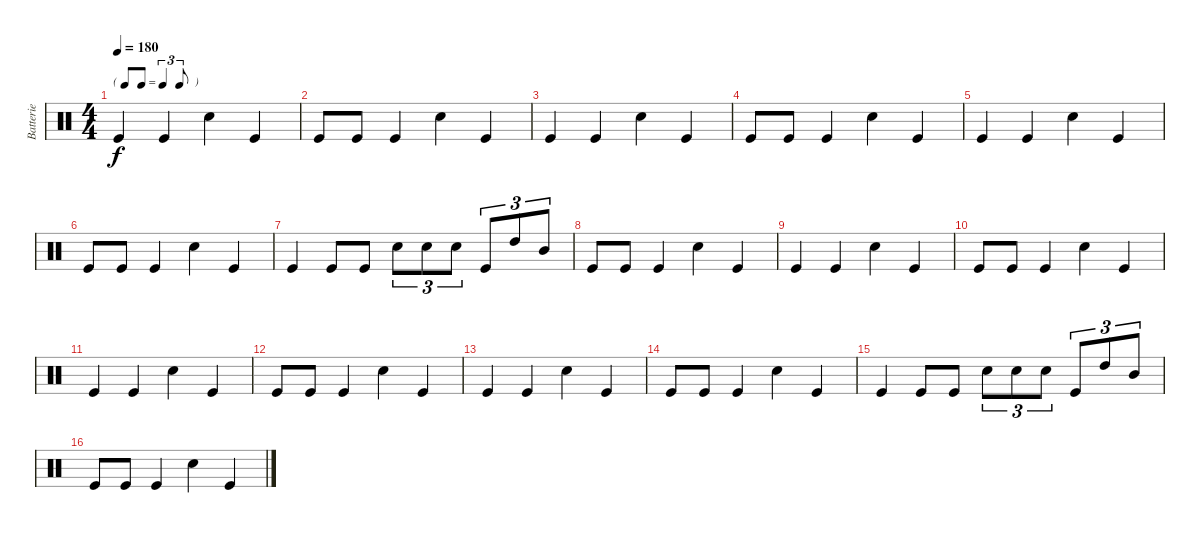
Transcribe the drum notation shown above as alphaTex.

\track ("Batterie" "Batterie") {instrument percussion}
\staff {score}
\articulation defaults
\ts (4 4)
\tf triplet8th
\tempo 180
\clef neutral
\ks c "Kick (hit)".4{dy f} "Kick (hit)".4 "Electric Snare (hit)".4 "Kick (hit)".4
|
"Kick (hit)".8 "Kick (hit)".8 "Kick (hit)".4 "Electric Snare (hit)".4 "Kick (hit)".4 |
"Kick (hit)".4 "Kick (hit)".4 "Electric Snare (hit)".4 "Kick (hit)".4 |
"Kick (hit)".8 "Kick (hit)".8 "Kick (hit)".4 "Electric Snare (hit)".4 "Kick (hit)".4 |
"Kick (hit)".4 "Kick (hit)".4 "Electric Snare (hit)".4 "Kick (hit)".4 |
"Kick (hit)".8 "Kick (hit)".8 "Kick (hit)".4 "Electric Snare (hit)".4 "Kick (hit)".4 |
"Kick (hit)".4 "Kick (hit)".8 "Kick (hit)".8 "Electric Snare (hit)".8{tu (3 2)} "Electric Snare (hit)".8{tu (3 2)} "Electric Snare (hit)".8{tu (3 2)} "Kick (hit)".8{tu (3 2)} "High Tom (hit)".8{tu (3 2)} "Mid Tom (hit)".8{tu (3 2)} |
"Kick (hit)".8 "Kick (hit)".8 "Kick (hit)".4 "Electric Snare (hit)".4 "Kick (hit)".4 |
"Kick (hit)".4 "Kick (hit)".4 "Electric Snare (hit)".4 "Kick (hit)".4 |
"Kick (hit)".8 "Kick (hit)".8 "Kick (hit)".4 "Electric Snare (hit)".4 "Kick (hit)".4 |
"Kick (hit)".4 "Kick (hit)".4 "Electric Snare (hit)".4 "Kick (hit)".4 |
"Kick (hit)".8 "Kick (hit)".8 "Kick (hit)".4 "Electric Snare (hit)".4 "Kick (hit)".4 |
"Kick (hit)".4 "Kick (hit)".4 "Electric Snare (hit)".4 "Kick (hit)".4 |
"Kick (hit)".8 "Kick (hit)".8 "Kick (hit)".4 "Electric Snare (hit)".4 "Kick (hit)".4 |
"Kick (hit)".4 "Kick (hit)".8 "Kick (hit)".8 "Electric Snare (hit)".8{tu (3 2)} "Electric Snare (hit)".8{tu (3 2)} "Electric Snare (hit)".8{tu (3 2)} "Kick (hit)".8{tu (3 2)} "High Tom (hit)".8{tu (3 2)} "Mid Tom (hit)".8{tu (3 2)} |
"Kick (hit)".8 "Kick (hit)".8 "Kick (hit)".4 "Electric Snare (hit)".4 "Kick (hit)".4
